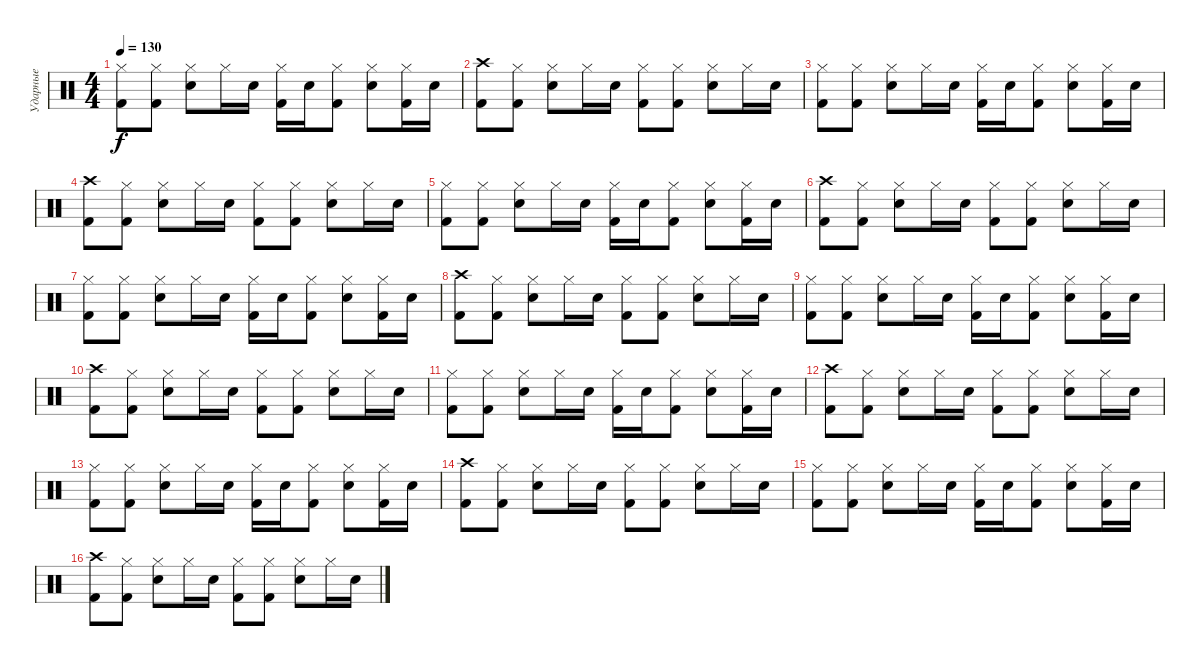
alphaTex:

\track ("Ударные" "Ударные") {instrument percussion}
\staff {score}
\articulation defaults
\ts (4 4)
\tempo 130
\clef neutral
\ks c
("Kick (hit) 2" "Hi-Hat (closed)").8{dy f} ("Kick (hit) 2" "Hi-Hat (closed)").8 ("Snare (hit) 2" "Hi-Hat (closed)").8 "Hi-Hat (closed)".16 "Snare (hit) 2".16 ("Kick (hit) 2" "Hi-Hat (closed)").16 "Snare (hit) 2".16 ("Kick (hit) 2" "Hi-Hat (closed)").8 ("Snare (hit) 2" "Hi-Hat (closed)").8 ("Kick (hit) 2" "Hi-Hat (closed)").16 "Snare (hit) 2".16 |
("Kick (hit) 2" "Crash high (hit)").8 ("Kick (hit) 2" "Hi-Hat (closed)").8 ("Snare (hit) 2" "Hi-Hat (closed)").8 "Hi-Hat (closed)".16 "Snare (hit) 2".16 ("Kick (hit) 2" "Hi-Hat (closed)").8 ("Kick (hit) 2" "Hi-Hat (closed)").8 ("Snare (hit) 2" "Hi-Hat (closed)").8 "Hi-Hat (closed)".16 "Snare (hit) 2".16 |
("Kick (hit) 2" "Hi-Hat (closed)").8 ("Kick (hit) 2" "Hi-Hat (closed)").8 ("Snare (hit) 2" "Hi-Hat (closed)").8 "Hi-Hat (closed)".16 "Snare (hit) 2".16 ("Kick (hit) 2" "Hi-Hat (closed)").16 "Snare (hit) 2".16 ("Kick (hit) 2" "Hi-Hat (closed)").8 ("Snare (hit) 2" "Hi-Hat (closed)").8 ("Kick (hit) 2" "Hi-Hat (closed)").16 "Snare (hit) 2".16 |
("Kick (hit) 2" "Crash high (hit)").8 ("Kick (hit) 2" "Hi-Hat (closed)").8 ("Snare (hit) 2" "Hi-Hat (closed)").8 "Hi-Hat (closed)".16 "Snare (hit) 2".16 ("Kick (hit) 2" "Hi-Hat (closed)").8 ("Kick (hit) 2" "Hi-Hat (closed)").8 ("Snare (hit) 2" "Hi-Hat (closed)").8 "Hi-Hat (closed)".16 "Snare (hit) 2".16 |
("Kick (hit) 2" "Hi-Hat (closed)").8 ("Kick (hit) 2" "Hi-Hat (closed)").8 ("Snare (hit) 2" "Hi-Hat (closed)").8 "Hi-Hat (closed)".16 "Snare (hit) 2".16 ("Kick (hit) 2" "Hi-Hat (closed)").16 "Snare (hit) 2".16 ("Kick (hit) 2" "Hi-Hat (closed)").8 ("Snare (hit) 2" "Hi-Hat (closed)").8 ("Kick (hit) 2" "Hi-Hat (closed)").16 "Snare (hit) 2".16 |
("Kick (hit) 2" "Crash high (hit)").8 ("Kick (hit) 2" "Hi-Hat (closed)").8 ("Snare (hit) 2" "Hi-Hat (closed)").8 "Hi-Hat (closed)".16 "Snare (hit) 2".16 ("Kick (hit) 2" "Hi-Hat (closed)").8 ("Kick (hit) 2" "Hi-Hat (closed)").8 ("Snare (hit) 2" "Hi-Hat (closed)").8 "Hi-Hat (closed)".16 "Snare (hit) 2".16 |
("Kick (hit) 2" "Hi-Hat (closed)").8 ("Kick (hit) 2" "Hi-Hat (closed)").8 ("Snare (hit) 2" "Hi-Hat (closed)").8 "Hi-Hat (closed)".16 "Snare (hit) 2".16 ("Kick (hit) 2" "Hi-Hat (closed)").16 "Snare (hit) 2".16 ("Kick (hit) 2" "Hi-Hat (closed)").8 ("Snare (hit) 2" "Hi-Hat (closed)").8 ("Kick (hit) 2" "Hi-Hat (closed)").16 "Snare (hit) 2".16 |
("Kick (hit) 2" "Crash high (hit)").8 ("Kick (hit) 2" "Hi-Hat (closed)").8 ("Snare (hit) 2" "Hi-Hat (closed)").8 "Hi-Hat (closed)".16 "Snare (hit) 2".16 ("Kick (hit) 2" "Hi-Hat (closed)").8 ("Kick (hit) 2" "Hi-Hat (closed)").8 ("Snare (hit) 2" "Hi-Hat (closed)").8 "Hi-Hat (closed)".16 "Snare (hit) 2".16 |
("Kick (hit) 2" "Hi-Hat (closed)").8 ("Kick (hit) 2" "Hi-Hat (closed)").8 ("Snare (hit) 2" "Hi-Hat (closed)").8 "Hi-Hat (closed)".16 "Snare (hit) 2".16 ("Kick (hit) 2" "Hi-Hat (closed)").16 "Snare (hit) 2".16 ("Kick (hit) 2" "Hi-Hat (closed)").8 ("Snare (hit) 2" "Hi-Hat (closed)").8 ("Kick (hit) 2" "Hi-Hat (closed)").16 "Snare (hit) 2".16 |
("Kick (hit) 2" "Crash high (hit)").8 ("Kick (hit) 2" "Hi-Hat (closed)").8 ("Snare (hit) 2" "Hi-Hat (closed)").8 "Hi-Hat (closed)".16 "Snare (hit) 2".16 ("Kick (hit) 2" "Hi-Hat (closed)").8 ("Kick (hit) 2" "Hi-Hat (closed)").8 ("Snare (hit) 2" "Hi-Hat (closed)").8 "Hi-Hat (closed)".16 "Snare (hit) 2".16 |
("Kick (hit) 2" "Hi-Hat (closed)").8 ("Kick (hit) 2" "Hi-Hat (closed)").8 ("Snare (hit) 2" "Hi-Hat (closed)").8 "Hi-Hat (closed)".16 "Snare (hit) 2".16 ("Kick (hit) 2" "Hi-Hat (closed)").16 "Snare (hit) 2".16 ("Kick (hit) 2" "Hi-Hat (closed)").8 ("Snare (hit) 2" "Hi-Hat (closed)").8 ("Kick (hit) 2" "Hi-Hat (closed)").16 "Snare (hit) 2".16 |
("Kick (hit) 2" "Crash high (hit)").8 ("Kick (hit) 2" "Hi-Hat (closed)").8 ("Snare (hit) 2" "Hi-Hat (closed)").8 "Hi-Hat (closed)".16 "Snare (hit) 2".16 ("Kick (hit) 2" "Hi-Hat (closed)").8 ("Kick (hit) 2" "Hi-Hat (closed)").8 ("Snare (hit) 2" "Hi-Hat (closed)").8 "Hi-Hat (closed)".16 "Snare (hit) 2".16 |
("Kick (hit) 2" "Hi-Hat (closed)").8 ("Kick (hit) 2" "Hi-Hat (closed)").8 ("Snare (hit) 2" "Hi-Hat (closed)").8 "Hi-Hat (closed)".16 "Snare (hit) 2".16 ("Kick (hit) 2" "Hi-Hat (closed)").16 "Snare (hit) 2".16 ("Kick (hit) 2" "Hi-Hat (closed)").8 ("Snare (hit) 2" "Hi-Hat (closed)").8 ("Kick (hit) 2" "Hi-Hat (closed)").16 "Snare (hit) 2".16 |
("Kick (hit) 2" "Crash high (hit)").8 ("Kick (hit) 2" "Hi-Hat (closed)").8 ("Snare (hit) 2" "Hi-Hat (closed)").8 "Hi-Hat (closed)".16 "Snare (hit) 2".16 ("Kick (hit) 2" "Hi-Hat (closed)").8 ("Kick (hit) 2" "Hi-Hat (closed)").8 ("Snare (hit) 2" "Hi-Hat (closed)").8 "Hi-Hat (closed)".16 "Snare (hit) 2".16 |
("Kick (hit) 2" "Hi-Hat (closed)").8 ("Kick (hit) 2" "Hi-Hat (closed)").8 ("Snare (hit) 2" "Hi-Hat (closed)").8 "Hi-Hat (closed)".16 "Snare (hit) 2".16 ("Kick (hit) 2" "Hi-Hat (closed)").16 "Snare (hit) 2".16 ("Kick (hit) 2" "Hi-Hat (closed)").8 ("Snare (hit) 2" "Hi-Hat (closed)").8 ("Kick (hit) 2" "Hi-Hat (closed)").16 "Snare (hit) 2".16 |
("Kick (hit) 2" "Crash high (hit)").8 ("Kick (hit) 2" "Hi-Hat (closed)").8 ("Snare (hit) 2" "Hi-Hat (closed)").8 "Hi-Hat (closed)".16 "Snare (hit) 2".16 ("Kick (hit) 2" "Hi-Hat (closed)").8 ("Kick (hit) 2" "Hi-Hat (closed)").8 ("Snare (hit) 2" "Hi-Hat (closed)").8 "Hi-Hat (closed)".16 "Snare (hit) 2".16
